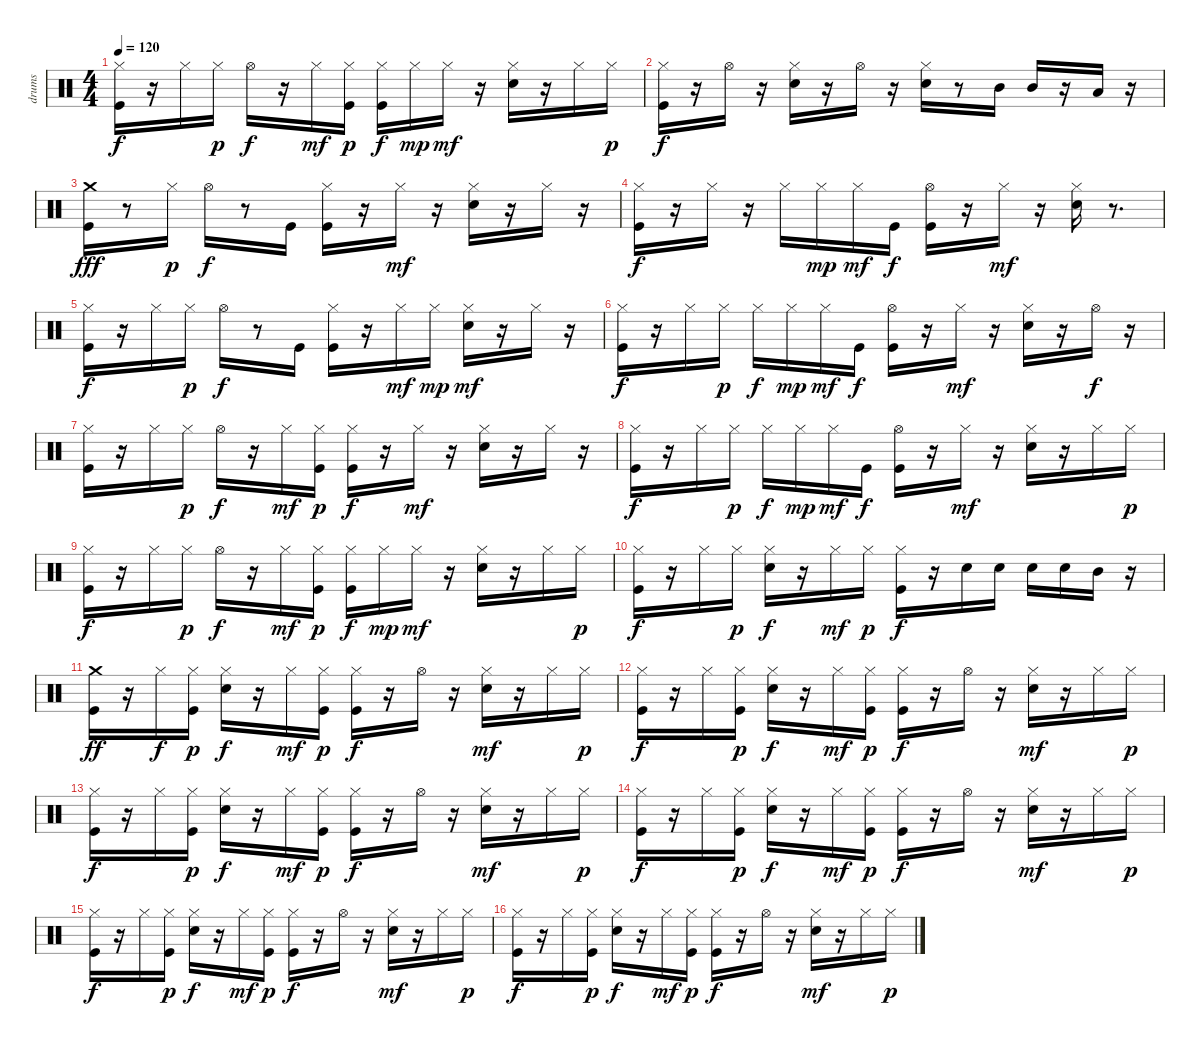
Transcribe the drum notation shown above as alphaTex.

\track ("drums" "drums") {instrument percussion}
\staff {score}
\articulation defaults
\ts (4 4)
\tempo 120
\clef neutral
\ks c
("Kick (hit)" "Hi-Hat (closed)").16{dy f} r.16 "Hi-Hat (closed)".16 "Hi-Hat (closed)".16{dy p} "Hi-Hat (open)".16{dy f} r.16 "Hi-Hat (closed)".16{dy mf} ("Kick (hit)" "Hi-Hat (closed)").16{dy p} ("Kick (hit)" "Hi-Hat (closed)").16{dy f} "Hi-Hat (closed)".16{dy mp} "Hi-Hat (closed)".16{dy mf} r.16 ("Electric Snare (hit)" "Hi-Hat (closed)").16 r.16 "Hi-Hat (closed)".16 "Hi-Hat (closed)".16{dy p} |
("Kick (hit)" "Hi-Hat (closed)").16{dy f} r.16 "Hi-Hat (open)".16 r.16 ("Electric Snare (hit)" "Hi-Hat (closed)").16 r.16 "Hi-Hat (open)".16 r.16 ("Electric Snare (hit)" "Hi-Hat (closed)").16 r.8 "Mid Tom (hit)".16 "Mid Tom (hit)".16 r.16 "Low Tom (hit)".16 r.16 |
("Kick (hit)" "Crash medium (hit)").16{dy fff} r.8 "Hi-Hat (closed)".16{dy p} "Hi-Hat (open)".16{dy f} r.8 "Kick (hit)".16 ("Kick (hit)" "Hi-Hat (closed)").16 r.16 "Hi-Hat (closed)".16{dy mf} r.16 ("Electric Snare (hit)" "Hi-Hat (closed)").16 r.16 "Hi-Hat (closed)".16 r.16 |
("Kick (hit)" "Hi-Hat (closed)").16{dy f} r.16 "Hi-Hat (closed)".16 r.16 "Hi-Hat (closed)".16 "Hi-Hat (closed)".16{dy mp} "Hi-Hat (closed)".16{dy mf} "Kick (hit)".16{dy f} ("Kick (hit)" "Hi-Hat (open)").16 r.16 "Hi-Hat (closed)".16{dy mf} r.16 ("Electric Snare (hit)" "Hi-Hat (closed)").16 r.8{d} |
("Kick (hit)" "Hi-Hat (closed)").16{dy f} r.16 "Hi-Hat (closed)".16 "Hi-Hat (closed)".16{dy p} "Hi-Hat (open)".16{dy f} r.8 "Kick (hit)".16 ("Kick (hit)" "Hi-Hat (closed)").16 r.16 "Hi-Hat (closed)".16{dy mf} "Hi-Hat (closed)".16{dy mp} ("Electric Snare (hit)" "Hi-Hat (closed)").16{dy mf} r.16 "Hi-Hat (closed)".16 r.16 |
("Kick (hit)" "Hi-Hat (closed)").16{dy f} r.16 "Hi-Hat (closed)".16 "Hi-Hat (closed)".16{dy p} "Hi-Hat (closed)".16{dy f} "Hi-Hat (closed)".16{dy mp} "Hi-Hat (closed)".16{dy mf} "Kick (hit)".16{dy f} ("Kick (hit)" "Hi-Hat (open)").16 r.16 "Hi-Hat (closed)".16{dy mf} r.16 ("Electric Snare (hit)" "Hi-Hat (closed)").16 r.16 "Hi-Hat (open)".16{dy f} r.16 |
("Kick (hit)" "Hi-Hat (closed)").16 r.16 "Hi-Hat (closed)".16 "Hi-Hat (closed)".16{dy p} "Hi-Hat (open)".16{dy f} r.16 "Hi-Hat (closed)".16{dy mf} ("Kick (hit)" "Hi-Hat (closed)").16{dy p} ("Kick (hit)" "Hi-Hat (closed)").16{dy f} r.16 "Hi-Hat (closed)".16{dy mf} r.16 ("Electric Snare (hit)" "Hi-Hat (closed)").16 r.16 "Hi-Hat (closed)".16 r.16 |
("Kick (hit)" "Hi-Hat (closed)").16{dy f} r.16 "Hi-Hat (closed)".16 "Hi-Hat (closed)".16{dy p} "Hi-Hat (closed)".16{dy f} "Hi-Hat (closed)".16{dy mp} "Hi-Hat (closed)".16{dy mf} "Kick (hit)".16{dy f} ("Kick (hit)" "Hi-Hat (open)").16 r.16 "Hi-Hat (closed)".16{dy mf} r.16 ("Electric Snare (hit)" "Hi-Hat (closed)").16 r.16 "Hi-Hat (closed)".16 "Hi-Hat (closed)".16{dy p} |
("Kick (hit)" "Hi-Hat (closed)").16{dy f} r.16 "Hi-Hat (closed)".16 "Hi-Hat (closed)".16{dy p} "Hi-Hat (open)".16{dy f} r.16 "Hi-Hat (closed)".16{dy mf} ("Kick (hit)" "Hi-Hat (closed)").16{dy p} ("Kick (hit)" "Hi-Hat (closed)").16{dy f} "Hi-Hat (closed)".16{dy mp} "Hi-Hat (closed)".16{dy mf} r.16 ("Electric Snare (hit)" "Hi-Hat (closed)").16 r.16 "Hi-Hat (closed)".16 "Hi-Hat (closed)".16{dy p} |
("Kick (hit)" "Hi-Hat (closed)").16{dy f} r.16 "Hi-Hat (closed)".16 "Hi-Hat (closed)".16{dy p} ("Electric Snare (hit)" "Hi-Hat (closed)").16{dy f} r.16 "Hi-Hat (closed)".16{dy mf} "Hi-Hat (closed)".16{dy p} ("Kick (hit)" "Hi-Hat (closed)").16{dy f} r.16 "Electric Snare (hit)".16 "Electric Snare (hit)".16 "Electric Snare (hit)".16 "Electric Snare (hit)".16 "Mid Tom (hit)".16 r.16 |
("Kick (hit)" "Crash medium (hit)").16{dy ff} r.16 "Hi-Hat (closed)".16{dy f} ("Kick (hit)" "Hi-Hat (closed)").16{dy p} ("Electric Snare (hit)" "Hi-Hat (closed)").16{dy f} r.16 "Hi-Hat (closed)".16{dy mf} ("Kick (hit)" "Hi-Hat (closed)").16{dy p} ("Kick (hit)" "Hi-Hat (closed)").16{dy f} r.16 "Hi-Hat (open)".16 r.16 ("Electric Snare (hit)" "Hi-Hat (closed)").16{dy mf} r.16 "Hi-Hat (closed)".16 "Hi-Hat (closed)".16{dy p} |
("Kick (hit)" "Hi-Hat (closed)").16{dy f} r.16 "Hi-Hat (closed)".16 ("Kick (hit)" "Hi-Hat (closed)").16{dy p} ("Electric Snare (hit)" "Hi-Hat (closed)").16{dy f} r.16 "Hi-Hat (closed)".16{dy mf} ("Kick (hit)" "Hi-Hat (closed)").16{dy p} ("Kick (hit)" "Hi-Hat (closed)").16{dy f} r.16 "Hi-Hat (open)".16 r.16 ("Electric Snare (hit)" "Hi-Hat (closed)").16{dy mf} r.16 "Hi-Hat (closed)".16 "Hi-Hat (closed)".16{dy p} |
("Kick (hit)" "Hi-Hat (closed)").16{dy f} r.16 "Hi-Hat (closed)".16 ("Kick (hit)" "Hi-Hat (closed)").16{dy p} ("Electric Snare (hit)" "Hi-Hat (closed)").16{dy f} r.16 "Hi-Hat (closed)".16{dy mf} ("Kick (hit)" "Hi-Hat (closed)").16{dy p} ("Kick (hit)" "Hi-Hat (closed)").16{dy f} r.16 "Hi-Hat (open)".16 r.16 ("Electric Snare (hit)" "Hi-Hat (closed)").16{dy mf} r.16 "Hi-Hat (closed)".16 "Hi-Hat (closed)".16{dy p} |
("Kick (hit)" "Hi-Hat (closed)").16{dy f} r.16 "Hi-Hat (closed)".16 ("Kick (hit)" "Hi-Hat (closed)").16{dy p} ("Electric Snare (hit)" "Hi-Hat (closed)").16{dy f} r.16 "Hi-Hat (closed)".16{dy mf} ("Kick (hit)" "Hi-Hat (closed)").16{dy p} ("Kick (hit)" "Hi-Hat (closed)").16{dy f} r.16 "Hi-Hat (open)".16 r.16 ("Electric Snare (hit)" "Hi-Hat (closed)").16{dy mf} r.16 "Hi-Hat (closed)".16 "Hi-Hat (closed)".16{dy p} |
("Kick (hit)" "Hi-Hat (closed)").16{dy f} r.16 "Hi-Hat (closed)".16 ("Kick (hit)" "Hi-Hat (closed)").16{dy p} ("Electric Snare (hit)" "Hi-Hat (closed)").16{dy f} r.16 "Hi-Hat (closed)".16{dy mf} ("Kick (hit)" "Hi-Hat (closed)").16{dy p} ("Kick (hit)" "Hi-Hat (closed)").16{dy f} r.16 "Hi-Hat (open)".16 r.16 ("Electric Snare (hit)" "Hi-Hat (closed)").16{dy mf} r.16 "Hi-Hat (closed)".16 "Hi-Hat (closed)".16{dy p} |
("Kick (hit)" "Hi-Hat (closed)").16{dy f} r.16 "Hi-Hat (closed)".16 ("Kick (hit)" "Hi-Hat (closed)").16{dy p} ("Electric Snare (hit)" "Hi-Hat (closed)").16{dy f} r.16 "Hi-Hat (closed)".16{dy mf} ("Kick (hit)" "Hi-Hat (closed)").16{dy p} ("Kick (hit)" "Hi-Hat (closed)").16{dy f} r.16 "Hi-Hat (open)".16 r.16 ("Electric Snare (hit)" "Hi-Hat (closed)").16{dy mf} r.16 "Hi-Hat (closed)".16 "Hi-Hat (closed)".16{dy p}
